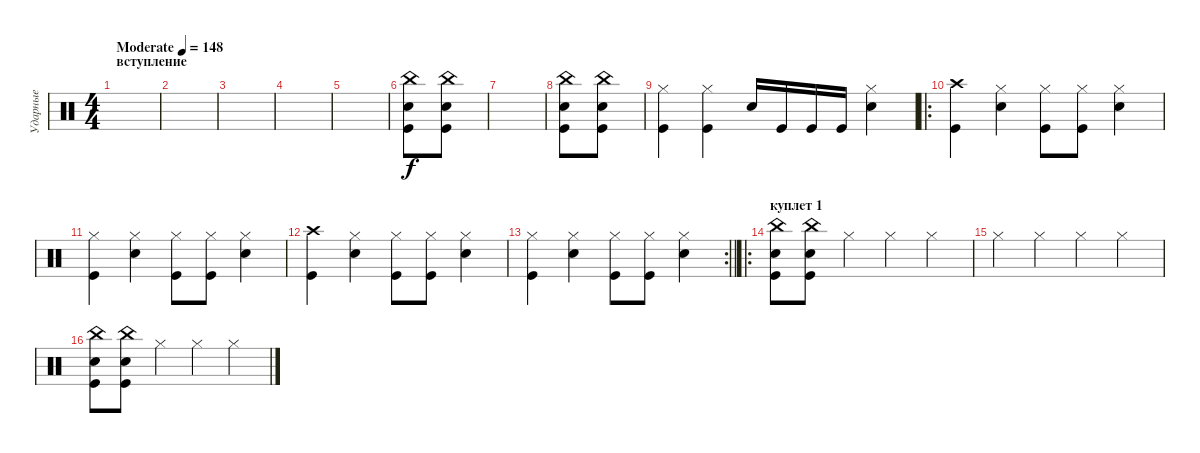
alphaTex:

\track ("Ударные" "Ударные") {instrument percussion}
\staff {score}
\articulation defaults
\ts (4 4)
\section ("" "вступление")
\tempo (148 "Moderate")
\clef neutral
\ks c
|
|
|
|
|
("Snare (hit) 2" "Kick (hit)" "China (hit)").8 ("Snare (hit) 2" "Kick (hit)" "China (hit)").8 |
|
("Snare (hit) 2" "Kick (hit)" "China (hit)").8 ("Snare (hit) 2" "Kick (hit)" "China (hit)").8 |
("Kick (hit)" "Hi-Hat (closed)").4 ("Kick (hit)" "Hi-Hat (closed)").4 "Snare (hit) 2".16 "Kick (hit)".16 "Kick (hit)".16 "Kick (hit)".16 ("Snare (hit) 2" "Hi-Hat (closed)").4 |
\ro
("Kick (hit)" "Crash high (hit)").4 ("Snare (hit) 2" "Hi-Hat (closed)").4 ("Kick (hit)" "Hi-Hat (closed)").8 ("Kick (hit)" "Hi-Hat (closed)").8 ("Snare (hit) 2" "Hi-Hat (closed)").4 |
("Kick (hit)" "Hi-Hat (closed)").4 ("Snare (hit) 2" "Hi-Hat (closed)").4 ("Kick (hit)" "Hi-Hat (closed)").8 ("Kick (hit)" "Hi-Hat (closed)").8 ("Snare (hit) 2" "Hi-Hat (closed)").4 |
("Kick (hit)" "Crash high (hit)").4 ("Snare (hit) 2" "Hi-Hat (closed)").4 ("Kick (hit)" "Hi-Hat (closed)").8 ("Kick (hit)" "Hi-Hat (closed)").8 ("Snare (hit) 2" "Hi-Hat (closed)").4 |
\rc 2
\barLineRight lightlight
("Kick (hit)" "Hi-Hat (closed)").4 ("Snare (hit) 2" "Hi-Hat (closed)").4 ("Kick (hit)" "Hi-Hat (closed)").8 ("Kick (hit)" "Hi-Hat (closed)").8 ("Snare (hit) 2" "Hi-Hat (closed)").4 |
\ro
\section ("" "куплет 1")
("Kick (hit)" "Snare (hit) 2" "China (hit)").8 ("Snare (hit) 2" "Kick (hit)" "China (hit)").8 "Hi-Hat (closed)".4 "Hi-Hat (closed)".4 "Hi-Hat (closed)".4 |
"Hi-Hat (closed)".4 "Hi-Hat (closed)".4 "Hi-Hat (closed)".4 "Hi-Hat (closed)".4 |
("Kick (hit)" "Snare (hit) 2" "China (hit)").8 ("Snare (hit) 2" "Kick (hit)" "China (hit)").8 "Hi-Hat (closed)".4 "Hi-Hat (closed)".4 "Hi-Hat (closed)".4
